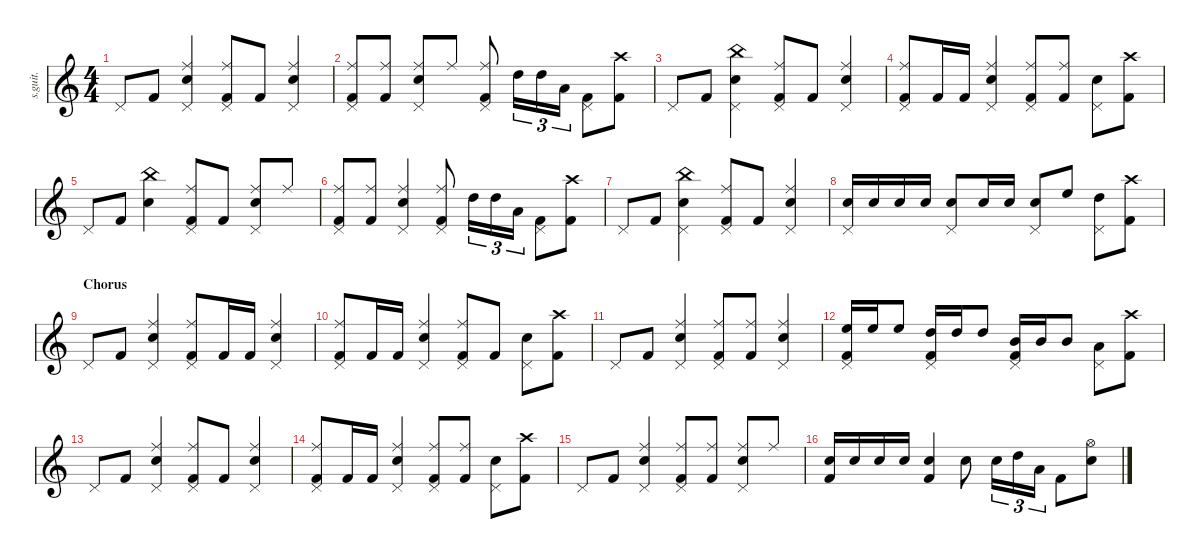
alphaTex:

\defaultSystemsLayout 4
\hideDynamics
\bracketExtendMode nobrackets
\track ("Nicko McBrain" "s.guit.") {instrument percussion}
\staff {score}
\articulation defaults
\ts (4 4)
\tempo (162 hide)
\clef g2
\ks c "Pedal Hi-Hat (hit)".8{dy mf} "Kick (hit) 2".8
("Pedal Hi-Hat (hit)" "Snare (hit) 2" "Ride (middle)").4 ("Kick (hit) 2" "Pedal Hi-Hat (hit)" "Ride (middle)").8 "Kick (hit) 2".8 ("Pedal Hi-Hat (hit)" "Snare (hit) 2" "Ride (middle)").4 |
("Pedal Hi-Hat (hit)" "Kick (hit) 2" "Ride (middle)").8 ("Kick (hit) 2" "Ride (middle)").8 ("Snare (hit) 2" "Pedal Hi-Hat (hit)" "Ride (middle)").8 "Ride (middle)".8 ("Ride (middle)" "Pedal Hi-Hat (hit)" "Kick (hit) 2").8 "High Tom (hit)".16{tu (3 2)} "High Tom (hit)".16{tu (3 2)} "Low Tom (hit)".16{tu (3 2)} ("Kick (hit) 2" "Pedal Hi-Hat (hit)").8 ("Kick (hit) 2" "Crash high (hit)").8 |
"Pedal Hi-Hat (hit)".8 "Kick (hit) 2".8 ("Snare (hit) 2" "China (hit)" "Pedal Hi-Hat (hit)").4 ("Kick (hit) 2" "Pedal Hi-Hat (hit)" "Ride (middle)").8 "Kick (hit) 2".8 ("Pedal Hi-Hat (hit)" "Snare (hit) 2" "Ride (middle)").4 |
("Kick (hit) 2" "Ride (middle)" "Pedal Hi-Hat (hit)").8 "Kick (hit) 2".16 "Kick (hit) 2".16 ("Snare (hit) 2" "Pedal Hi-Hat (hit)" "Ride (middle)").4 ("Pedal Hi-Hat (hit)" "Kick (hit) 2" "Ride (middle)").8 ("Kick (hit) 2" "Ride (middle)").8 ("Snare (hit) 2" "Pedal Hi-Hat (hit)").8 ("Crash high (hit)" "Kick (hit) 2").8 |
"Pedal Hi-Hat (hit)".8 "Kick (hit) 2".8 ("Snare (hit) 2" "China (hit)").4 ("Kick (hit) 2" "Pedal Hi-Hat (hit)" "Ride (middle)").8 "Kick (hit) 2".8 ("Snare (hit) 2" "Pedal Hi-Hat (hit)" "Ride (middle)").8 "Ride (middle)".8 |
("Pedal Hi-Hat (hit)" "Kick (hit) 2" "Ride (middle)").8 ("Kick (hit) 2" "Ride (middle)").8 ("Snare (hit) 2" "Pedal Hi-Hat (hit)" "Ride (middle)").4 ("Ride (middle)" "Pedal Hi-Hat (hit)" "Kick (hit) 2").8 "High Tom (hit)".16{tu (3 2)} "High Tom (hit)".16{tu (3 2)} "Low Tom (hit)".16{tu (3 2)} ("Kick (hit) 2" "Pedal Hi-Hat (hit)").8 ("Kick (hit) 2" "Crash high (hit)").8 |
"Pedal Hi-Hat (hit)".8 "Kick (hit) 2".8 ("Snare (hit) 2" "China (hit)" "Pedal Hi-Hat (hit)").4 ("Kick (hit) 2" "Pedal Hi-Hat (hit)" "Ride (middle)").8 "Kick (hit) 2".8 ("Snare (hit) 2" "Pedal Hi-Hat (hit)" "Ride (middle)").4 |
("Pedal Hi-Hat (hit)" "Snare (hit) 2").16 "Snare (hit) 2".16 "Snare (hit) 2".16 "Snare (hit) 2".16 ("Snare (hit) 2" "Pedal Hi-Hat (hit)").8 "Snare (hit) 2".16 "Snare (hit) 2".16 ("Snare (hit) 2" "Pedal Hi-Hat (hit)").8 "High Floor Tom (hit)".8 ("High Tom (hit)" "Pedal Hi-Hat (hit)").8 ("Kick (hit) 2" "Crash high (hit)").8 |
\section ("" "Chorus")
"Pedal Hi-Hat (hit)".8 "Kick (hit) 2".8 ("Snare (hit) 2" "Pedal Hi-Hat (hit)" "Ride (middle)").4 ("Kick (hit) 2" "Pedal Hi-Hat (hit)" "Ride (middle)").8 "Kick (hit) 2".16 "Kick (hit) 2".16 ("Snare (hit) 2" "Pedal Hi-Hat (hit)" "Ride (middle)").4 |
("Kick (hit) 2" "Pedal Hi-Hat (hit)" "Ride (middle)").8 "Kick (hit) 2".16 "Kick (hit) 2".16 ("Snare (hit) 2" "Pedal Hi-Hat (hit)" "Ride (middle)").4 ("Pedal Hi-Hat (hit)" "Kick (hit) 2" "Ride (middle)").8 "Kick (hit) 2".8 ("Snare (hit) 2" "Pedal Hi-Hat (hit)").8 ("Crash high (hit)" "Kick (hit) 2").8 |
"Pedal Hi-Hat (hit)".8 "Kick (hit) 2".8 ("Snare (hit) 2" "Pedal Hi-Hat (hit)" "Ride (middle)").4 ("Kick (hit) 2" "Pedal Hi-Hat (hit)" "Ride (middle)").8 ("Kick (hit) 2" "Ride (middle)").8 ("Snare (hit) 2" "Pedal Hi-Hat (hit)" "Ride (middle)").4 |
("Pedal Hi-Hat (hit)" "High Floor Tom (hit)" "Kick (hit) 2").16 "High Floor Tom (hit)".16 "High Floor Tom (hit)".8 ("Pedal Hi-Hat (hit)" "Kick (hit) 2" "High Tom (hit)").16 "High Tom (hit)".16 "High Tom (hit)".8 ("Pedal Hi-Hat (hit)" "Kick (hit) 2" "Mid Tom (hit)").16 "Mid Tom (hit)".16 "Mid Tom (hit)".8 ("Pedal Hi-Hat (hit)" "Low Tom (hit)").8 ("Crash high (hit)" "Kick (hit) 2").8 |
"Pedal Hi-Hat (hit)".8 "Kick (hit) 2".8 ("Snare (hit) 2" "Pedal Hi-Hat (hit)" "Ride (middle)").4 ("Kick (hit) 2" "Pedal Hi-Hat (hit)" "Ride (middle)").8 "Kick (hit) 2".8 ("Snare (hit) 2" "Pedal Hi-Hat (hit)" "Ride (middle)").4 |
("Kick (hit) 2" "Pedal Hi-Hat (hit)" "Ride (middle)").8 "Kick (hit) 2".16 "Kick (hit) 2".16 ("Snare (hit) 2" "Pedal Hi-Hat (hit)" "Ride (middle)").4 ("Pedal Hi-Hat (hit)" "Kick (hit) 2" "Ride (middle)").8 ("Kick (hit) 2" "Ride (middle)").8 ("Snare (hit) 2" "Pedal Hi-Hat (hit)").8 ("Crash high (hit)" "Kick (hit) 2").8 |
"Pedal Hi-Hat (hit)".8 "Kick (hit) 2".8 ("Snare (hit) 2" "Pedal Hi-Hat (hit)" "Ride (middle)").4 ("Kick (hit) 2" "Pedal Hi-Hat (hit)" "Ride (middle)").8 ("Kick (hit) 2" "Ride (middle)").8 ("Snare (hit) 2" "Pedal Hi-Hat (hit)" "Ride (middle)").8 "Ride (middle)".8 |
("Snare (hit) 2" "Kick (hit) 2").16 "Snare (hit) 2".16 "Snare (hit) 2".16 "Snare (hit) 2".16 ("Snare (hit) 2" "Kick (hit) 2").4 "Snare (hit) 2".8 "Snare (hit) 2".16{tu (3 2)} "High Tom (hit)".16{tu (3 2)} "Low Tom (hit)".16{tu (3 2)} "Kick (hit) 2".8 ("Snare (hit) 2" "Hi-Hat (open)").8
